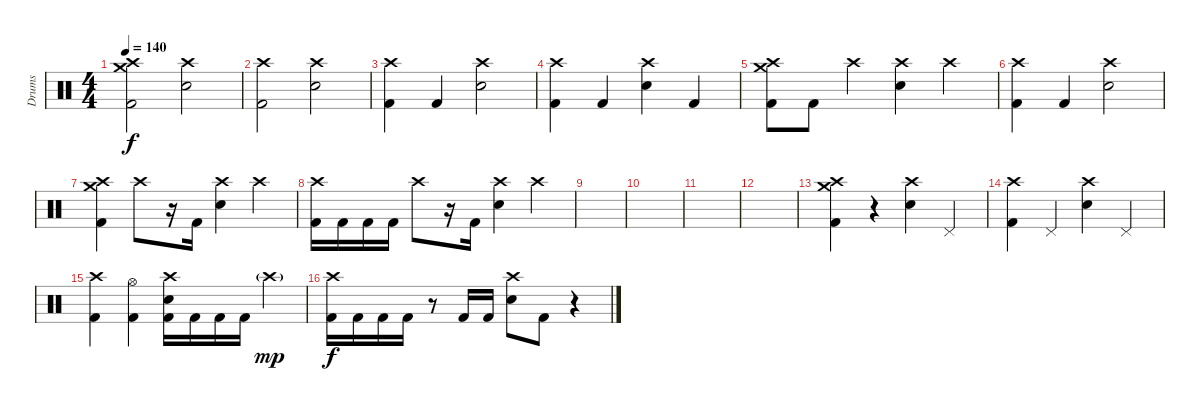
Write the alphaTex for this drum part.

\track ("Drums" "Drums") {instrument percussion}
\staff {score}
\articulation defaults
\ts (4 4)
\tempo 140
\clef neutral
\ks c
("Crash medium (hit)" "Crash high (hit)" "Kick (hit) 2").2{dy f} ("Crash high (hit)" "Electric Snare (hit)").2 |
("Crash high (hit)" "Kick (hit) 2").2 ("Crash high (hit)" "Electric Snare (hit)").2 |
("Crash high (hit)" "Kick (hit) 2").4 "Kick (hit) 2".4 ("Crash high (hit)" "Electric Snare (hit)").2 |
("Crash high (hit)" "Kick (hit) 2").4 "Kick (hit) 2".4 ("Crash high (hit)" "Electric Snare (hit)").4 "Kick (hit) 2".4 |
("Crash medium (hit)" "Crash high (hit)" "Kick (hit) 2").8 "Kick (hit) 2".8 "Crash high (hit)".4 ("Crash high (hit)" "Electric Snare (hit)").4 "Crash high (hit)".4 |
("Crash high (hit)" "Kick (hit) 2").4 "Kick (hit) 2".4 ("Crash high (hit)" "Electric Snare (hit)").2 |
("Crash medium (hit)" "Crash high (hit)" "Kick (hit) 2").4 "Crash high (hit)".8 r.16 "Kick (hit) 2".16 ("Crash high (hit)" "Electric Snare (hit)").4 "Crash high (hit)".4 |
("Crash high (hit)" "Kick (hit) 2").16 "Kick (hit) 2".16 "Kick (hit) 2".16 "Kick (hit) 2".16 "Crash high (hit)".8 r.16 "Kick (hit) 2".16 ("Crash high (hit)" "Electric Snare (hit)").4 "Crash high (hit)".4 |
|
|
|
|
("Crash medium (hit)" "Crash high (hit)" "Kick (hit) 2").4 r.4 ("Crash high (hit)" "Electric Snare (hit)").4 "Pedal Hi-Hat (hit)".4 |
("Crash high (hit)" "Kick (hit) 2").4 "Pedal Hi-Hat (hit)".4 ("Crash high (hit)" "Electric Snare (hit)").4 "Pedal Hi-Hat (hit)".4 |
("Crash high (hit)" "Kick (hit) 2").4 ("Hi-Hat (open)" "Kick (hit) 2").4 ("Crash high (hit)" "Electric Snare (hit)" "Kick (hit) 2").16 "Kick (hit) 2".16 "Kick (hit) 2".16 "Kick (hit) 2".16 "Crash high (hit)"{g}.4{dy mp} |
("Crash high (hit)" "Kick (hit) 2").16{dy f} "Kick (hit) 2".16 "Kick (hit) 2".16 "Kick (hit) 2".16 r.8 "Kick (hit) 2".16 "Kick (hit) 2".16 ("Crash high (hit)" "Electric Snare (hit)").8 "Kick (hit) 2".8 r.4
